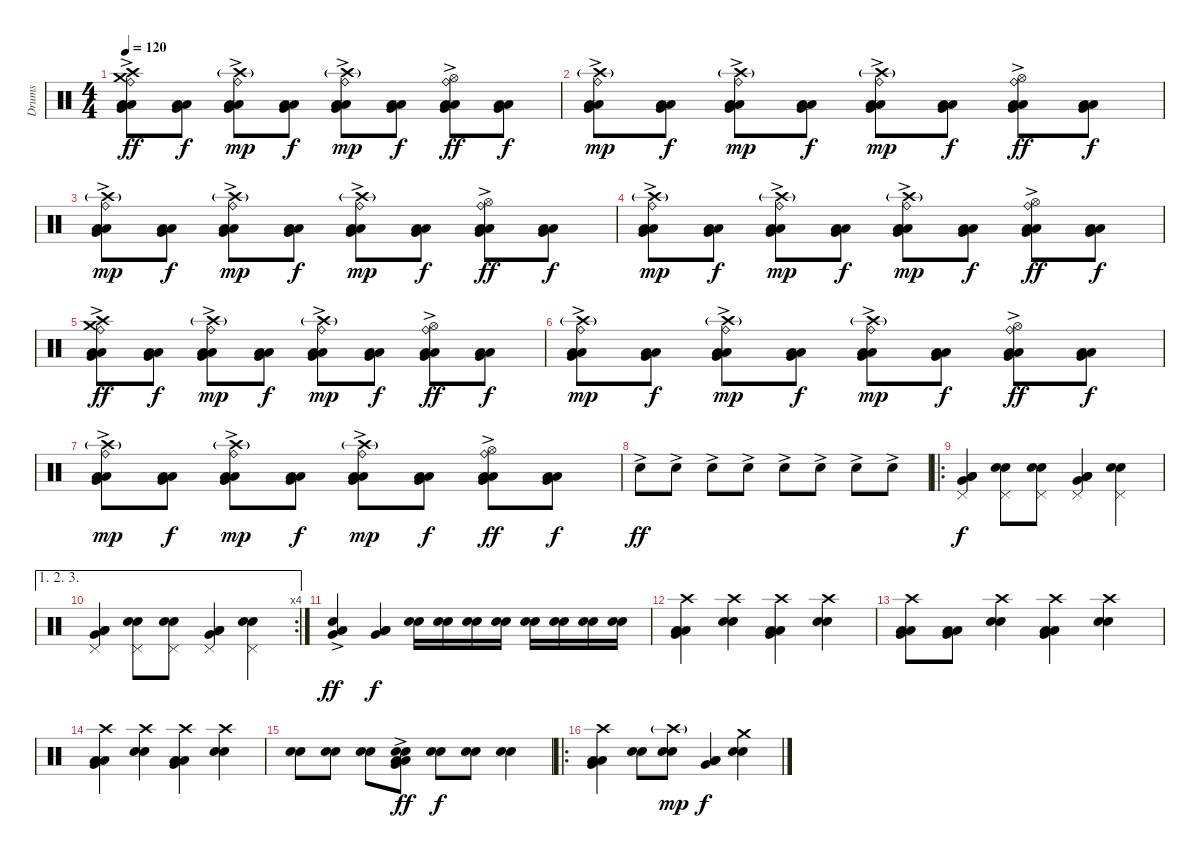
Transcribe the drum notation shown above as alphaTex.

\track ("Drums" "Drums") {instrument percussion}
\staff {score}
\articulation defaults
\ts (4 4)
\tempo 120
\clef neutral
\ks c
("Ride (bell)"{ac} "Crash high (hit)" "Crash medium (hit)" "Low Floor Tom (hit)" "Very Low Tom (hit)" "Low Tom (hit)").8{dy ff} ("Low Floor Tom (hit)" "Very Low Tom (hit)" "Low Tom (hit)").8{dy f} ("Ride (bell)"{ac} "Crash high (hit)"{g} "Low Floor Tom (hit)" "Very Low Tom (hit)" "Low Tom (hit)").8{dy mp} ("Low Floor Tom (hit)" "Very Low Tom (hit)" "Low Tom (hit)").8{dy f} ("Ride (bell)"{ac} "Crash high (hit)"{g} "Low Floor Tom (hit)" "Very Low Tom (hit)" "Low Tom (hit)").8{dy mp} ("Low Floor Tom (hit)" "Very Low Tom (hit)" "Low Tom (hit)").8{dy f} ("Ride (bell)"{ac} "Hi-Hat (open)" "Low Floor Tom (hit)" "Very Low Tom (hit)" "Low Tom (hit)").8{dy ff} ("Low Floor Tom (hit)" "Very Low Tom (hit)" "Low Tom (hit)").8{dy f} |
("Ride (bell)"{ac} "Crash high (hit)"{g} "Low Floor Tom (hit)" "Very Low Tom (hit)" "Low Tom (hit)").8{dy mp} ("Low Floor Tom (hit)" "Very Low Tom (hit)" "Low Tom (hit)").8{dy f} ("Ride (bell)"{ac} "Crash high (hit)"{g} "Low Floor Tom (hit)" "Very Low Tom (hit)" "Low Tom (hit)").8{dy mp} ("Low Floor Tom (hit)" "Very Low Tom (hit)" "Low Tom (hit)").8{dy f} ("Ride (bell)"{ac} "Crash high (hit)"{g} "Low Floor Tom (hit)" "Very Low Tom (hit)" "Low Tom (hit)").8{dy mp} ("Low Floor Tom (hit)" "Very Low Tom (hit)" "Low Tom (hit)").8{dy f} ("Ride (bell)"{ac} "Hi-Hat (open)" "Low Floor Tom (hit)" "Very Low Tom (hit)" "Low Tom (hit)").8{dy ff} ("Low Floor Tom (hit)" "Very Low Tom (hit)" "Low Tom (hit)").8{dy f} |
("Ride (bell)"{ac} "Crash high (hit)"{g} "Low Floor Tom (hit)" "Very Low Tom (hit)" "Low Tom (hit)").8{dy mp} ("Low Floor Tom (hit)" "Very Low Tom (hit)" "Low Tom (hit)").8{dy f} ("Ride (bell)"{ac} "Crash high (hit)"{g} "Low Floor Tom (hit)" "Very Low Tom (hit)" "Low Tom (hit)").8{dy mp} ("Low Floor Tom (hit)" "Very Low Tom (hit)" "Low Tom (hit)").8{dy f} ("Ride (bell)"{ac} "Crash high (hit)"{g} "Low Floor Tom (hit)" "Very Low Tom (hit)" "Low Tom (hit)").8{dy mp} ("Low Floor Tom (hit)" "Very Low Tom (hit)" "Low Tom (hit)").8{dy f} ("Ride (bell)"{ac} "Hi-Hat (open)" "Low Floor Tom (hit)" "Very Low Tom (hit)" "Low Tom (hit)").8{dy ff} ("Low Floor Tom (hit)" "Very Low Tom (hit)" "Low Tom (hit)").8{dy f} |
("Ride (bell)"{ac} "Crash high (hit)"{g} "Low Floor Tom (hit)" "Very Low Tom (hit)" "Low Tom (hit)").8{dy mp} ("Low Floor Tom (hit)" "Very Low Tom (hit)" "Low Tom (hit)").8{dy f} ("Ride (bell)"{ac} "Crash high (hit)"{g} "Low Floor Tom (hit)" "Very Low Tom (hit)" "Low Tom (hit)").8{dy mp} ("Low Floor Tom (hit)" "Very Low Tom (hit)" "Low Tom (hit)").8{dy f} ("Ride (bell)"{ac} "Crash high (hit)"{g} "Low Floor Tom (hit)" "Very Low Tom (hit)" "Low Tom (hit)").8{dy mp} ("Low Floor Tom (hit)" "Very Low Tom (hit)" "Low Tom (hit)").8{dy f} ("Ride (bell)"{ac} "Hi-Hat (open)" "Low Floor Tom (hit)" "Very Low Tom (hit)" "Low Tom (hit)").8{dy ff} ("Low Floor Tom (hit)" "Very Low Tom (hit)" "Low Tom (hit)").8{dy f} |
("Ride (bell)"{ac} "Crash high (hit)" "Crash medium (hit)" "Low Floor Tom (hit)" "Very Low Tom (hit)" "Low Tom (hit)").8{dy ff} ("Low Floor Tom (hit)" "Very Low Tom (hit)" "Low Tom (hit)").8{dy f} ("Ride (bell)"{ac} "Crash high (hit)"{g} "Low Floor Tom (hit)" "Very Low Tom (hit)" "Low Tom (hit)").8{dy mp} ("Low Floor Tom (hit)" "Very Low Tom (hit)" "Low Tom (hit)").8{dy f} ("Ride (bell)"{ac} "Crash high (hit)"{g} "Low Floor Tom (hit)" "Very Low Tom (hit)" "Low Tom (hit)").8{dy mp} ("Low Floor Tom (hit)" "Very Low Tom (hit)" "Low Tom (hit)").8{dy f} ("Ride (bell)"{ac} "Hi-Hat (open)" "Low Floor Tom (hit)" "Very Low Tom (hit)" "Low Tom (hit)").8{dy ff} ("Low Floor Tom (hit)" "Very Low Tom (hit)" "Low Tom (hit)").8{dy f} |
("Ride (bell)"{ac} "Crash high (hit)"{g} "Low Floor Tom (hit)" "Very Low Tom (hit)" "Low Tom (hit)").8{dy mp} ("Low Floor Tom (hit)" "Very Low Tom (hit)" "Low Tom (hit)").8{dy f} ("Ride (bell)"{ac} "Crash high (hit)"{g} "Low Floor Tom (hit)" "Very Low Tom (hit)" "Low Tom (hit)").8{dy mp} ("Low Floor Tom (hit)" "Very Low Tom (hit)" "Low Tom (hit)").8{dy f} ("Ride (bell)"{ac} "Crash high (hit)"{g} "Low Floor Tom (hit)" "Very Low Tom (hit)" "Low Tom (hit)").8{dy mp} ("Low Floor Tom (hit)" "Very Low Tom (hit)" "Low Tom (hit)").8{dy f} ("Ride (bell)"{ac} "Hi-Hat (open)" "Low Floor Tom (hit)" "Very Low Tom (hit)" "Low Tom (hit)").8{dy ff} ("Low Floor Tom (hit)" "Very Low Tom (hit)" "Low Tom (hit)").8{dy f} |
("Ride (bell)"{ac} "Crash high (hit)"{g} "Low Floor Tom (hit)" "Very Low Tom (hit)" "Low Tom (hit)").8{dy mp} ("Low Floor Tom (hit)" "Very Low Tom (hit)" "Low Tom (hit)").8{dy f} ("Ride (bell)"{ac} "Crash high (hit)"{g} "Low Floor Tom (hit)" "Very Low Tom (hit)" "Low Tom (hit)").8{dy mp} ("Low Floor Tom (hit)" "Very Low Tom (hit)" "Low Tom (hit)").8{dy f} ("Ride (bell)"{ac} "Crash high (hit)"{g} "Low Floor Tom (hit)" "Very Low Tom (hit)" "Low Tom (hit)").8{dy mp} ("Low Floor Tom (hit)" "Very Low Tom (hit)" "Low Tom (hit)").8{dy f} ("Ride (bell)"{ac} "Hi-Hat (open)" "Low Floor Tom (hit)" "Very Low Tom (hit)" "Low Tom (hit)").8{dy ff} ("Low Floor Tom (hit)" "Very Low Tom (hit)" "Low Tom (hit)").8{dy f} |
"Electric Snare (hit)"{ac}.8{dy ff} "Electric Snare (hit)"{ac}.8 "Electric Snare (hit)"{ac}.8 "Electric Snare (hit)"{ac}.8 "Electric Snare (hit)"{ac}.8 "Electric Snare (hit)"{ac}.8 "Electric Snare (hit)"{ac}.8 "Electric Snare (hit)"{ac}.8 |
\ro
("Pedal Hi-Hat (hit)" "Low Floor Tom (hit)" "Very Low Tom (hit)" "Low Tom (hit)").4{dy f} ("Pedal Hi-Hat (hit)" "Electric Snare (hit)" "Snare (hit) 2").8 ("Pedal Hi-Hat (hit)" "Electric Snare (hit)" "Snare (hit) 2").8 ("Pedal Hi-Hat (hit)" "Low Tom (hit)" "Low Floor Tom (hit)" "Very Low Tom (hit)").4 ("Pedal Hi-Hat (hit)" "Electric Snare (hit)" "Snare (hit) 2").4 |
\ae (1 2 3)
\rc 4
("Pedal Hi-Hat (hit)" "Low Floor Tom (hit)" "Very Low Tom (hit)" "Low Tom (hit)").4 ("Pedal Hi-Hat (hit)" "Electric Snare (hit)" "Snare (hit) 2").8 ("Pedal Hi-Hat (hit)" "Electric Snare (hit)" "Snare (hit) 2").8 ("Pedal Hi-Hat (hit)" "Low Tom (hit)" "Low Floor Tom (hit)" "Very Low Tom (hit)").4 ("Pedal Hi-Hat (hit)" "Electric Snare (hit)" "Snare (hit) 2").4 |
("Electric Snare (hit)"{ac} "Very Low Tom (hit)" "Low Tom (hit)").4{dy ff} ("Low Floor Tom (hit)" "Very Low Tom (hit)" "Low Tom (hit)").4{dy f} ("Electric Snare (hit)" "Snare (hit) 2").16 ("Electric Snare (hit)" "Snare (hit) 2").16 ("Electric Snare (hit)" "Snare (hit) 2").16 ("Electric Snare (hit)" "Snare (hit) 2").16 ("Electric Snare (hit)" "Snare (hit) 2").16 ("Electric Snare (hit)" "Snare (hit) 2").16 ("Electric Snare (hit)" "Snare (hit) 2").16 ("Electric Snare (hit)" "Snare (hit) 2").16 |
("Crash high (hit)" "Low Floor Tom (hit)" "Very Low Tom (hit)" "Low Tom (hit)").4 ("Crash high (hit)" "Electric Snare (hit)" "Snare (hit) 2").4 ("Crash high (hit)" "Low Floor Tom (hit)" "Very Low Tom (hit)" "Low Tom (hit)").4 ("Crash high (hit)" "Electric Snare (hit)" "Snare (hit) 2").4 |
("Crash high (hit)" "Low Floor Tom (hit)" "Very Low Tom (hit)" "Low Tom (hit)").8 ("Low Floor Tom (hit)" "Very Low Tom (hit)" "Low Tom (hit)").8 ("Crash high (hit)" "Electric Snare (hit)" "Snare (hit) 2").4 ("Crash high (hit)" "Low Floor Tom (hit)" "Very Low Tom (hit)" "Low Tom (hit)").4 ("Crash high (hit)" "Electric Snare (hit)" "Snare (hit) 2").4 |
("Crash high (hit)" "Low Floor Tom (hit)" "Very Low Tom (hit)" "Low Tom (hit)").4 ("Crash high (hit)" "Electric Snare (hit)" "Snare (hit) 2").4 ("Crash high (hit)" "Low Floor Tom (hit)" "Very Low Tom (hit)" "Low Tom (hit)").4 ("Crash high (hit)" "Electric Snare (hit)" "Snare (hit) 2").4 |
("Electric Snare (hit)" "Snare (hit) 2").8 ("Electric Snare (hit)" "Snare (hit) 2").8 ("Electric Snare (hit)" "Snare (hit) 2").8 ("Low Floor Tom (hit)"{ac} "Very Low Tom (hit)"{ac} "Low Tom (hit)"{ac} "Electric Snare (hit)"{ac} "Snare (hit) 2"{ac}).8{dy ff} ("Electric Snare (hit)" "Snare (hit) 2").8{dy f} ("Electric Snare (hit)" "Snare (hit) 2").8 ("Electric Snare (hit)" "Snare (hit) 2").4 |
\ro
("Crash high (hit)" "Low Floor Tom (hit)" "Very Low Tom (hit)" "Low Tom (hit)").4 ("Electric Snare (hit)" "Snare (hit) 2").8 ("Crash high (hit)"{g} "Electric Snare (hit)" "Snare (hit) 2").8{dy mp} ("Low Tom (hit)" "Low Floor Tom (hit)" "Very Low Tom (hit)").4{dy f} ("Crash medium (hit)" "Electric Snare (hit)" "Snare (hit) 2").4
